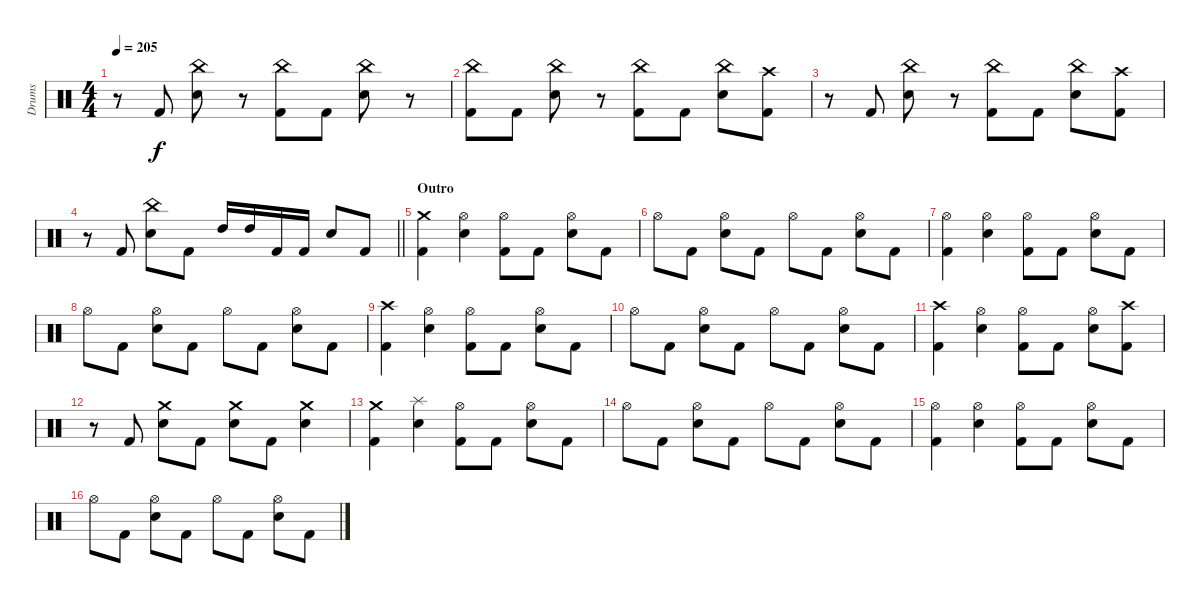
\track ("Drums" "Drums") {instrument percussion}
\staff {score}
\articulation defaults
\ts (4 4)
\tempo 205
\clef neutral
\ks c
r.8{dy f} "Kick (hit) 2".8 ("China (hit)" "Electric Snare (hit)").8 r.8 ("China (hit)" "Kick (hit) 2").8 "Kick (hit) 2".8 ("China (hit)" "Electric Snare (hit)").8 r.8 |
("China (hit)" "Kick (hit) 2").8 "Kick (hit) 2".8 ("China (hit)" "Electric Snare (hit)").8 r.8 ("China (hit)" "Kick (hit) 2").8 "Kick (hit) 2".8 ("China (hit)" "Electric Snare (hit)").8 ("Crash high (hit)" "Kick (hit) 2").8 |
r.8 "Kick (hit) 2".8 ("China (hit)" "Electric Snare (hit)").8 r.8 ("China (hit)" "Kick (hit) 2").8 "Kick (hit) 2".8 ("China (hit)" "Electric Snare (hit)").8 ("Crash high (hit)" "Kick (hit) 2").8 |
\barLineRight lightlight
r.8 "Kick (hit) 2".8 ("China (hit)" "Electric Snare (hit)").8 "Kick (hit) 2".8 "High Tom (hit)".16 "High Tom (hit)".16 "Kick (hit) 2".16 "Kick (hit) 2".16 "Electric Snare (hit)".8 "Kick (hit) 2".8 |
\section ("" "Outro")
("Crash medium (hit)" "Kick (hit) 2").4 ("Hi-Hat (open)" "Electric Snare (hit)").4 ("Hi-Hat (open)" "Kick (hit) 2").8 "Kick (hit) 2".8 ("Hi-Hat (open)" "Electric Snare (hit)").8 "Kick (hit) 2".8 |
"Hi-Hat (open)".8 "Kick (hit) 2".8 ("Hi-Hat (open)" "Electric Snare (hit)").8 "Kick (hit) 2".8 "Hi-Hat (open)".8 "Kick (hit) 2".8 ("Hi-Hat (open)" "Electric Snare (hit)").8 "Kick (hit) 2".8 |
("Hi-Hat (open)" "Kick (hit) 2").4 ("Hi-Hat (open)" "Electric Snare (hit)").4 ("Hi-Hat (open)" "Kick (hit) 2").8 "Kick (hit) 2".8 ("Hi-Hat (open)" "Electric Snare (hit)").8 "Kick (hit) 2".8 |
"Hi-Hat (open)".8 "Kick (hit) 2".8 ("Hi-Hat (open)" "Electric Snare (hit)").8 "Kick (hit) 2".8 "Hi-Hat (open)".8 "Kick (hit) 2".8 ("Hi-Hat (open)" "Electric Snare (hit)").8 "Kick (hit) 2".8 |
("Crash high (hit)" "Kick (hit) 2").4 ("Hi-Hat (open)" "Electric Snare (hit)").4 ("Hi-Hat (open)" "Kick (hit) 2").8 "Kick (hit) 2".8 ("Hi-Hat (open)" "Electric Snare (hit)").8 "Kick (hit) 2".8 |
"Hi-Hat (open)".8 "Kick (hit) 2".8 ("Hi-Hat (open)" "Electric Snare (hit)").8 "Kick (hit) 2".8 "Hi-Hat (open)".8 "Kick (hit) 2".8 ("Hi-Hat (open)" "Electric Snare (hit)").8 "Kick (hit) 2".8 |
("Crash high (hit)" "Kick (hit) 2").4 ("Hi-Hat (open)" "Electric Snare (hit)").4 ("Hi-Hat (open)" "Kick (hit) 2").8 "Kick (hit) 2".8 ("Hi-Hat (open)" "Electric Snare (hit)").8 ("Crash high (hit)" "Kick (hit) 2").8 |
r.8 "Kick (hit) 2".8 ("Crash medium (hit)" "Electric Snare (hit)").8 "Kick (hit) 2".8 ("Crash medium (hit)" "Electric Snare (hit)").8 "Kick (hit) 2".8 ("Crash medium (hit)" "Electric Snare (hit)").4 |
("Crash medium (hit)" "Kick (hit) 2").4 ("Splash (hit)" "Electric Snare (hit)").4 ("Hi-Hat (open)" "Kick (hit) 2").8 "Kick (hit) 2".8 ("Hi-Hat (open)" "Electric Snare (hit)").8 "Kick (hit) 2".8 |
"Hi-Hat (open)".8 "Kick (hit) 2".8 ("Hi-Hat (open)" "Electric Snare (hit)").8 "Kick (hit) 2".8 "Hi-Hat (open)".8 "Kick (hit) 2".8 ("Hi-Hat (open)" "Electric Snare (hit)").8 "Kick (hit) 2".8 |
("Hi-Hat (open)" "Kick (hit) 2").4 ("Hi-Hat (open)" "Electric Snare (hit)").4 ("Hi-Hat (open)" "Kick (hit) 2").8 "Kick (hit) 2".8 ("Hi-Hat (open)" "Electric Snare (hit)").8 "Kick (hit) 2".8 |
"Hi-Hat (open)".8 "Kick (hit) 2".8 ("Hi-Hat (open)" "Electric Snare (hit)").8 "Kick (hit) 2".8 "Hi-Hat (open)".8 "Kick (hit) 2".8 ("Hi-Hat (open)" "Electric Snare (hit)").8 "Kick (hit) 2".8
